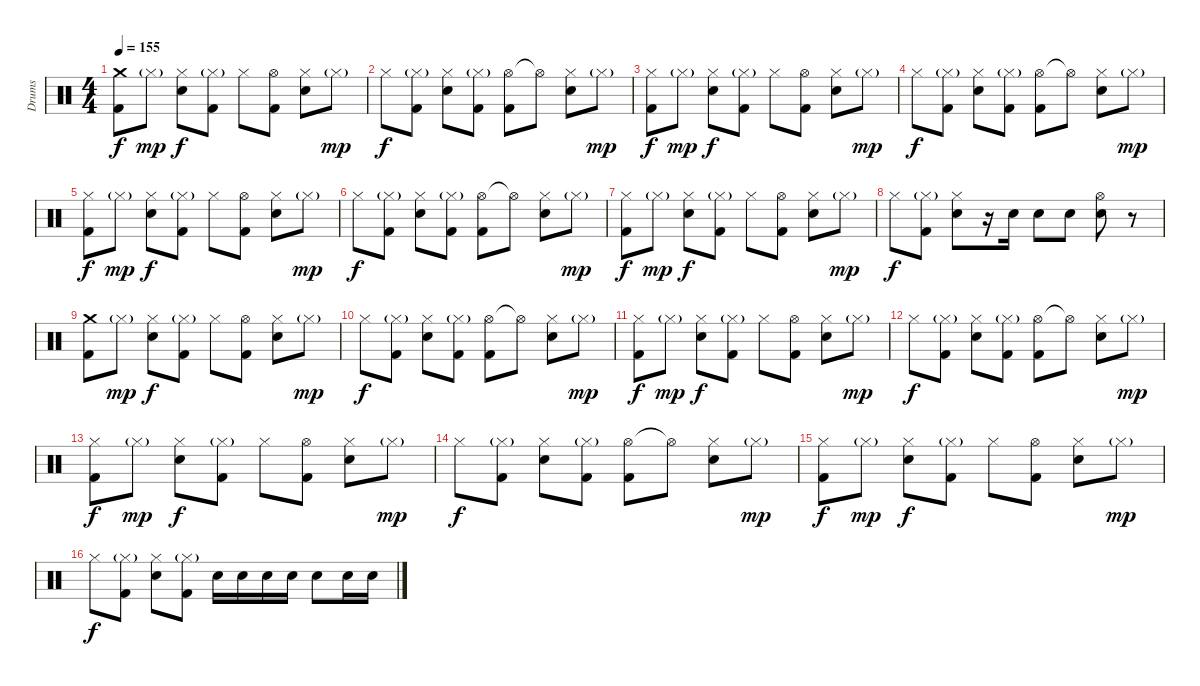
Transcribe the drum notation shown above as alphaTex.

\track ("Drums" "Drums") {instrument percussion}
\staff {score}
\articulation defaults
\ts (4 4)
\tempo 155
\clef neutral
\ks c
("Crash medium (hit)" "Kick (hit) 2").8{dy f} "Hi-Hat (closed)"{g}.8{dy mp} ("Hi-Hat (closed)" "Electric Snare (hit)").8{dy f} ("Hi-Hat (closed)"{g} "Kick (hit) 2").8 "Hi-Hat (closed)".8 ("Hi-Hat (open)" "Kick (hit) 2").8 ("Hi-Hat (closed)" "Electric Snare (hit)").8 "Hi-Hat (closed)"{g}.8{dy mp} |
"Hi-Hat (closed)".8{dy f} ("Hi-Hat (closed)"{g} "Kick (hit) 2").8 ("Hi-Hat (closed)" "Electric Snare (hit)").8 ("Hi-Hat (closed)"{g} "Kick (hit) 2").8 ("Hi-Hat (open)" "Kick (hit) 2").8 "Hi-Hat (open)"{t}.8 ("Hi-Hat (closed)" "Electric Snare (hit)").8 "Hi-Hat (closed)"{g}.8{dy mp} |
("Hi-Hat (closed)" "Kick (hit) 2").8{dy f} "Hi-Hat (closed)"{g}.8{dy mp} ("Hi-Hat (closed)" "Electric Snare (hit)").8{dy f} ("Hi-Hat (closed)"{g} "Kick (hit) 2").8 "Hi-Hat (closed)".8 ("Hi-Hat (open)" "Kick (hit) 2").8 ("Hi-Hat (closed)" "Electric Snare (hit)").8 "Hi-Hat (closed)"{g}.8{dy mp} |
"Hi-Hat (closed)".8{dy f} ("Hi-Hat (closed)"{g} "Kick (hit) 2").8 ("Hi-Hat (closed)" "Electric Snare (hit)").8 ("Hi-Hat (closed)"{g} "Kick (hit) 2").8 ("Hi-Hat (open)" "Kick (hit) 2").8 "Hi-Hat (open)"{t}.8 ("Hi-Hat (closed)" "Electric Snare (hit)").8 "Hi-Hat (closed)"{g}.8{dy mp} |
("Hi-Hat (closed)" "Kick (hit) 2").8{dy f} "Hi-Hat (closed)"{g}.8{dy mp} ("Hi-Hat (closed)" "Electric Snare (hit)").8{dy f} ("Hi-Hat (closed)"{g} "Kick (hit) 2").8 "Hi-Hat (closed)".8 ("Hi-Hat (open)" "Kick (hit) 2").8 ("Hi-Hat (closed)" "Electric Snare (hit)").8 "Hi-Hat (closed)"{g}.8{dy mp} |
"Hi-Hat (closed)".8{dy f} ("Hi-Hat (closed)"{g} "Kick (hit) 2").8 ("Hi-Hat (closed)" "Electric Snare (hit)").8 ("Hi-Hat (closed)"{g} "Kick (hit) 2").8 ("Hi-Hat (open)" "Kick (hit) 2").8 "Hi-Hat (open)"{t}.8 ("Hi-Hat (closed)" "Electric Snare (hit)").8 "Hi-Hat (closed)"{g}.8{dy mp} |
("Hi-Hat (closed)" "Kick (hit) 2").8{dy f} "Hi-Hat (closed)"{g}.8{dy mp} ("Hi-Hat (closed)" "Electric Snare (hit)").8{dy f} ("Hi-Hat (closed)"{g} "Kick (hit) 2").8 "Hi-Hat (closed)".8 ("Hi-Hat (open)" "Kick (hit) 2").8 ("Hi-Hat (closed)" "Electric Snare (hit)").8 "Hi-Hat (closed)"{g}.8{dy mp} |
"Hi-Hat (closed)".8{dy f} ("Hi-Hat (closed)"{g} "Kick (hit) 2").8 ("Hi-Hat (closed)" "Electric Snare (hit)").8 r.16 "Electric Snare (hit)".16 "Electric Snare (hit)".8 "Electric Snare (hit)".8 ("Electric Snare (hit)" "Hi-Hat (open)").8 r.8 |
("Crash medium (hit)" "Kick (hit) 2").8 "Hi-Hat (closed)"{g}.8{dy mp} ("Hi-Hat (closed)" "Electric Snare (hit)").8{dy f} ("Hi-Hat (closed)"{g} "Kick (hit) 2").8 "Hi-Hat (closed)".8 ("Hi-Hat (open)" "Kick (hit) 2").8 ("Hi-Hat (closed)" "Electric Snare (hit)").8 "Hi-Hat (closed)"{g}.8{dy mp} |
"Hi-Hat (closed)".8{dy f} ("Hi-Hat (closed)"{g} "Kick (hit) 2").8 ("Hi-Hat (closed)" "Electric Snare (hit)").8 ("Hi-Hat (closed)"{g} "Kick (hit) 2").8 ("Hi-Hat (open)" "Kick (hit) 2").8 "Hi-Hat (open)"{t}.8 ("Hi-Hat (closed)" "Electric Snare (hit)").8 "Hi-Hat (closed)"{g}.8{dy mp} |
("Hi-Hat (closed)" "Kick (hit) 2").8{dy f} "Hi-Hat (closed)"{g}.8{dy mp} ("Hi-Hat (closed)" "Electric Snare (hit)").8{dy f} ("Hi-Hat (closed)"{g} "Kick (hit) 2").8 "Hi-Hat (closed)".8 ("Hi-Hat (open)" "Kick (hit) 2").8 ("Hi-Hat (closed)" "Electric Snare (hit)").8 "Hi-Hat (closed)"{g}.8{dy mp} |
"Hi-Hat (closed)".8{dy f} ("Hi-Hat (closed)"{g} "Kick (hit) 2").8 ("Hi-Hat (closed)" "Electric Snare (hit)").8 ("Hi-Hat (closed)"{g} "Kick (hit) 2").8 ("Hi-Hat (open)" "Kick (hit) 2").8 "Hi-Hat (open)"{t}.8 ("Hi-Hat (closed)" "Electric Snare (hit)").8 "Hi-Hat (closed)"{g}.8{dy mp} |
("Hi-Hat (closed)" "Kick (hit) 2").8{dy f} "Hi-Hat (closed)"{g}.8{dy mp} ("Hi-Hat (closed)" "Electric Snare (hit)").8{dy f} ("Hi-Hat (closed)"{g} "Kick (hit) 2").8 "Hi-Hat (closed)".8 ("Hi-Hat (open)" "Kick (hit) 2").8 ("Hi-Hat (closed)" "Electric Snare (hit)").8 "Hi-Hat (closed)"{g}.8{dy mp} |
"Hi-Hat (closed)".8{dy f} ("Hi-Hat (closed)"{g} "Kick (hit) 2").8 ("Hi-Hat (closed)" "Electric Snare (hit)").8 ("Hi-Hat (closed)"{g} "Kick (hit) 2").8 ("Hi-Hat (open)" "Kick (hit) 2").8 "Hi-Hat (open)"{t}.8 ("Hi-Hat (closed)" "Electric Snare (hit)").8 "Hi-Hat (closed)"{g}.8{dy mp} |
("Hi-Hat (closed)" "Kick (hit) 2").8{dy f} "Hi-Hat (closed)"{g}.8{dy mp} ("Hi-Hat (closed)" "Electric Snare (hit)").8{dy f} ("Hi-Hat (closed)"{g} "Kick (hit) 2").8 "Hi-Hat (closed)".8 ("Hi-Hat (open)" "Kick (hit) 2").8 ("Hi-Hat (closed)" "Electric Snare (hit)").8 "Hi-Hat (closed)"{g}.8{dy mp} |
"Hi-Hat (closed)".8{dy f} ("Hi-Hat (closed)"{g} "Kick (hit) 2").8 ("Hi-Hat (closed)" "Electric Snare (hit)").8 ("Hi-Hat (closed)"{g} "Kick (hit) 2").8 "Electric Snare (hit)".16 "Electric Snare (hit)".16 "Electric Snare (hit)".16 "Electric Snare (hit)".16 "Electric Snare (hit)".8 "Electric Snare (hit)".16 "Electric Snare (hit)".16
